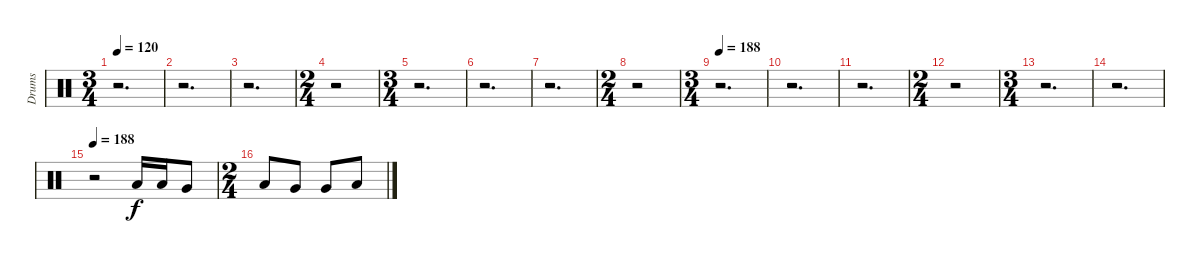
\track ("Drums" "Drums") {instrument percussion}
\staff {score}
\articulation defaults
\ts (3 4)
\tempo 120
\tempo 188
\tempo 120
\clef neutral
\ks c
r.2{d dy f} |
r.2{d} |
r.2{d} |
\ts (2 4)
r.2 |
\ts (3 4)
r.2{d} |
r.2{d} |
r.2{d} |
\ts (2 4)
r.2 |
\ts (3 4)
\tempo 188
r.2{d} |
r.2{d} |
r.2{d} |
\ts (2 4)
r.2 |
\ts (3 4)
r.2{d} |
r.2{d} |
\tempo 188
r.2 "Low Tom (hit)".16 "Low Tom (hit)".16 "Very Low Tom (hit)".8 |
\ts (2 4)
"Low Tom (hit)".8 "Very Low Tom (hit)".8 "Very Low Tom (hit)".8 "Low Floor Tom (hit)".8
